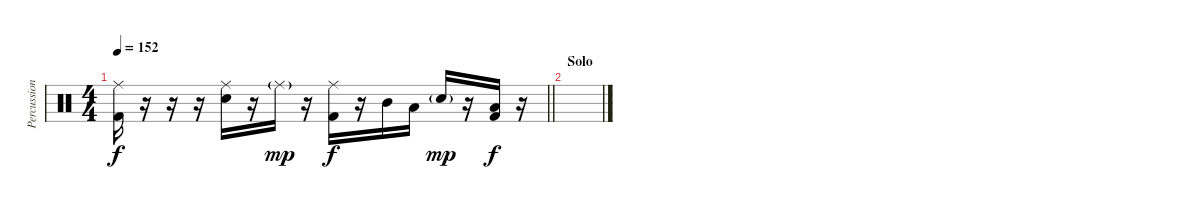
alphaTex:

\track ("Percussion" "Percussion") {instrument percussion}
\staff {score}
\articulation defaults
\ts (4 4)
\tempo 152
\clef neutral
\barLineRight lightlight
\ks c
("Ride (middle)" "Kick (hit) 2").16{dy f} r.16 r.16 r.16 ("Ride (middle)" "Snare (hit) 2").16 r.16 "Ride (middle)"{g}.16{dy mp} r.16 ("Ride (middle)" "Kick (hit) 2").16{dy f} r.16 "Mid Tom (hit)".16 "Low Tom (hit)".16 "Snare (hit) 2"{g}.16{dy mp} r.16 ("Low Tom (hit)" "Kick (hit) 2").16{dy f} r.16 |
\section ("" "Solo")
